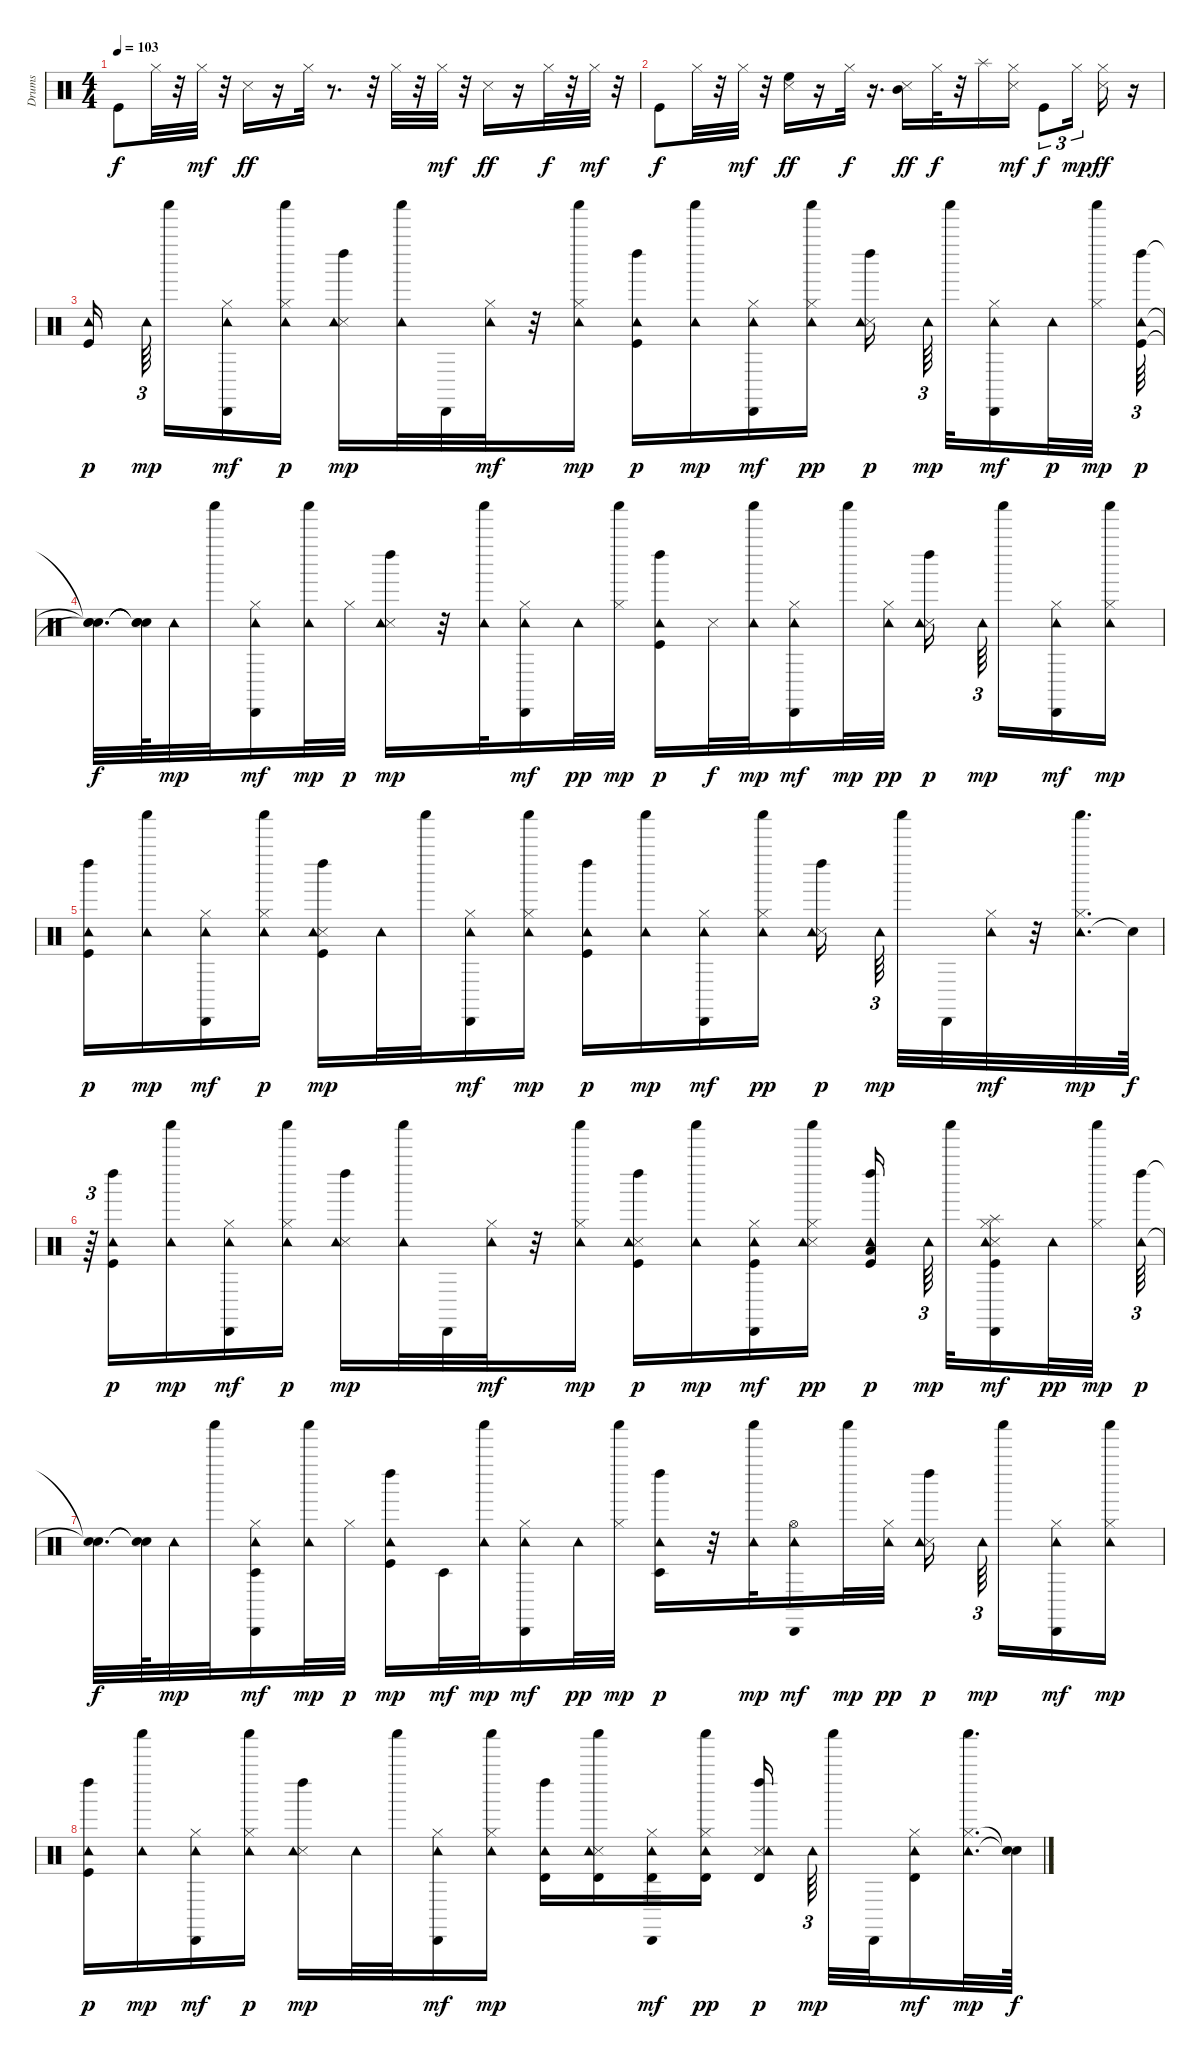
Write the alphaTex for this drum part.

\track ("Drums" "Drums") {instrument percussion}
\staff {score}
\articulation defaults
\ts (4 4)
\tempo 103
\clef neutral
\ks c "Kick (hit)".8{dy f} "Hi-Hat (closed)".32
r.32 "Hi-Hat (closed)".32{dy mf} r.32 "Snare (side stick) 3".16{dy ff} r.16 "Hi-Hat (closed)".32 r.8{d} r.32 "Hi-Hat (closed)".32 r.32 "Hi-Hat (closed)".32{dy mf} r.32 "Snare (side stick) 3".16{dy ff} r.16 "Hi-Hat (closed)".32{dy f} r.32 "Hi-Hat (closed)".32{dy mf} r.32 |
"Kick (hit)".8{dy f} "Hi-Hat (closed)".32 r.32 "Hi-Hat (closed)".32{dy mf} r.32 ("High Floor Tom (hit)" "Snare (side stick) 3").16{dy ff} r.16 "Hi-Hat (closed)".32{dy f} r.16{d} ("Mid Tom (hit)" "Snare (side stick) 3").16{dy ff} "Hi-Hat (closed)".32{dy f} r.32 "Splash (hit)".16 ("Snare (side stick) 3" "Hi-Hat (closed)").16{dy mf} "Kick (hit)".8{tu (3 2) dy f} "Hi-Hat (closed)".16{tu (3 2) dy mp} ("Snare (side stick) 3" "Hi-Hat (closed)").16{dy ff} r.16 |
("Kick (hit)" "Tambourine (hit)").16{dy p beam splitsecondary} "Tambourine (hit)".64{tu (3 2) dy mp beam splitsecondary} "Shaker (hit)".16 ("Cabasa (hit)" "Hi-Hat (closed)" "Tambourine (hit)").16{dy mf} ("Tambourine (hit)" "Shaker (hit)" "Hi-Hat (closed)").16{dy p} ("Left Maraca (hit)" "Snare (side stick) 3" "Tambourine (hit)").16{dy mp} ("Tambourine (hit)" "Shaker (hit)").32 "Cabasa (hit)".32 ("Hi-Hat (closed)" "Tambourine (hit)").32{dy mf} r.32 ("Tambourine (hit)" "Hi-Hat (closed)" "Shaker (hit)").16{dy mp} ("Left Maraca (hit)" "Kick (hit)" "Tambourine (hit)").16{dy p} ("Tambourine (hit)" "Shaker (hit)").16{dy mp} ("Cabasa (hit)" "Hi-Hat (closed)" "Tambourine (hit)").16{dy mf} ("Shaker (hit)" "Hi-Hat (closed)" "Tambourine (hit)").16{dy pp} ("Left Maraca (hit)" "Snare (side stick) 3" "Tambourine (hit)").16{dy p beam splitsecondary} "Tambourine (hit)".64{tu (3 2) dy mp beam splitsecondary} "Shaker (hit)".32 ("Cabasa (hit)" "Hi-Hat (closed)" "Tambourine (hit)").16{dy mf} "Tambourine (hit)".32{dy p} ("Hi-Hat (closed)" "Shaker (hit)").32{dy mp beam splitsecondary} ("Left Maraca (hit)" "Kick (hit)" "Tambourine (hit)").64{tu (3 2) dy p} |
("Snare (hit)"{t} "Snare (hit)"{t} "Snare (hit)"{t}).32{d dy f} ("Snare (hit)"{t} "Snare (hit)"{t} "Snare (hit)"{t}).64 "Tambourine (hit)".32{dy mp} "Shaker (hit)".32 ("Cabasa (hit)" "Hi-Hat (closed)" "Tambourine (hit)").16{dy mf} ("Tambourine (hit)" "Shaker (hit)").32{dy mp} "Hi-Hat (closed)".32{dy p} ("Left Maraca (hit)" "Snare (side stick) 3" "Tambourine (hit)").16{dy mp} r.32 ("Tambourine (hit)" "Shaker (hit)").32 ("Cabasa (hit)" "Hi-Hat (closed)" "Tambourine (hit)").16{dy mf} "Tambourine (hit)".32{dy pp} ("Hi-Hat (closed)" "Shaker (hit)").32{dy mp} ("Left Maraca (hit)" "Kick (hit)" "Tambourine (hit)").16{dy p} "Snare (side stick) 3".32{dy f} ("Tambourine (hit)" "Shaker (hit)").32{dy mp} ("Cabasa (hit)" "Hi-Hat (closed)" "Tambourine (hit)").16{dy mf} "Shaker (hit)".32{dy mp} ("Hi-Hat (closed)" "Tambourine (hit)").32{dy pp} ("Left Maraca (hit)" "Snare (side stick) 3" "Tambourine (hit)").16{dy p beam splitsecondary} "Tambourine (hit)".64{tu (3 2) dy mp beam splitsecondary} "Shaker (hit)".16 ("Cabasa (hit)" "Hi-Hat (closed)" "Tambourine (hit)").16{dy mf} ("Tambourine (hit)" "Hi-Hat (closed)" "Shaker (hit)").16{dy mp} |
("Left Maraca (hit)" "Kick (hit)" "Tambourine (hit)").16{dy p} ("Tambourine (hit)" "Shaker (hit)").16{dy mp} ("Cabasa (hit)" "Hi-Hat (closed)" "Tambourine (hit)").16{dy mf} ("Tambourine (hit)" "Shaker (hit)" "Hi-Hat (closed)").16{dy p} ("Left Maraca (hit)" "Kick (hit)" "Snare (side stick) 3" "Tambourine (hit)").16{dy mp} "Tambourine (hit)".32 "Shaker (hit)".32 ("Cabasa (hit)" "Hi-Hat (closed)" "Tambourine (hit)").16{dy mf} ("Tambourine (hit)" "Hi-Hat (closed)" "Shaker (hit)").16{dy mp} ("Left Maraca (hit)" "Kick (hit)" "Tambourine (hit)").16{dy p} ("Tambourine (hit)" "Shaker (hit)").16{dy mp} ("Cabasa (hit)" "Hi-Hat (closed)" "Tambourine (hit)").16{dy mf} ("Shaker (hit)" "Hi-Hat (closed)" "Tambourine (hit)").16{dy pp} ("Left Maraca (hit)" "Snare (side stick) 3" "Tambourine (hit)").16{dy p beam splitsecondary} "Tambourine (hit)".64{tu (3 2) dy mp beam splitsecondary} "Shaker (hit)".32 "Cabasa (hit)".32 ("Hi-Hat (closed)" "Tambourine (hit)").32{dy mf} r.32 ("Tambourine (hit)" "Hi-Hat (closed)" "Shaker (hit)").32{d dy mp} "Snare (hit)"{t}.64{dy f} |
r.64{tu (3 2)} ("Left Maraca (hit)" "Kick (hit)" "Tambourine (hit)").16{dy p} ("Tambourine (hit)" "Shaker (hit)").16{dy mp} ("Cabasa (hit)" "Hi-Hat (closed)" "Tambourine (hit)").16{dy mf} ("Tambourine (hit)" "Shaker (hit)" "Hi-Hat (closed)").16{dy p} ("Left Maraca (hit)" "Snare (side stick) 3" "Tambourine (hit)").16{dy mp} ("Tambourine (hit)" "Shaker (hit)").32 "Cabasa (hit)".32 ("Hi-Hat (closed)" "Tambourine (hit)").32{dy mf} r.32 ("Tambourine (hit)" "Hi-Hat (closed)" "Shaker (hit)").16{dy mp} ("Left Maraca (hit)" "Kick (hit)" "Snare (side stick) 3" "Tambourine (hit)").16{dy p} ("Tambourine (hit)" "Shaker (hit)").16{dy mp} ("Cabasa (hit)" "Kick (hit)" "Hi-Hat (closed)" "Tambourine (hit)").16{dy mf} ("Shaker (hit)" "Snare (side stick) 3" "Hi-Hat (closed)" "Tambourine (hit)").16{dy pp} ("Low Tom (hit)" "Left Maraca (hit)" "Kick (hit)" "Tambourine (hit)").16{dy p beam splitsecondary} "Tambourine (hit)".64{tu (3 2) dy mp beam splitsecondary} "Shaker (hit)".32 ("Cabasa (hit)" "Splash (hit)" "Kick (hit)" "Snare (side stick) 3" "Hi-Hat (closed)" "Tambourine (hit)").16{dy mf} "Tambourine (hit)".32{dy pp} ("Hi-Hat (closed)" "Shaker (hit)").32{dy mp beam splitsecondary} ("Left Maraca (hit)" "Tambourine (hit)").64{tu (3 2) dy p} |
("Snare (hit)"{t} "Snare (hit)"{t}).32{d dy f} ("Snare (hit)"{t} "Snare (hit)"{t}).64 "Tambourine (hit)".32{dy mp} "Shaker (hit)".32 ("Cabasa (hit)" "Hi-Hat (closed)" "Timbale low (hit)" "Tambourine (hit)").16{dy mf} ("Tambourine (hit)" "Shaker (hit)").32{dy mp} "Hi-Hat (closed)".32{dy p} ("Left Maraca (hit)" "Kick (hit)" "Tambourine (hit)").16{dy mp} "Timbale low (hit)".32{dy mf} ("Tambourine (hit)" "Shaker (hit)").32{dy mp} ("Cabasa (hit)" "Hi-Hat (closed)" "Tambourine (hit)").16{dy mf} "Tambourine (hit)".32{dy pp} ("Hi-Hat (closed)" "Shaker (hit)").32{dy mp} ("Left Maraca (hit)" "Timbale low (hit)" "Tambourine (hit)").16{dy p} r.32 ("Tambourine (hit)" "Shaker (hit)").32{dy mp} ("Cabasa (hit)" "Hi-Hat (open)" "Tambourine (hit)").16{dy mf} "Shaker (hit)".32{dy mp} ("Hi-Hat (closed)" "Tambourine (hit)").32{dy pp} ("Left Maraca (hit)" "Snare (side stick) 3" "Tambourine (hit)").16{dy p beam splitsecondary} "Tambourine (hit)".64{tu (3 2) dy mp beam splitsecondary} "Shaker (hit)".16 ("Cabasa (hit)" "Hi-Hat (closed)" "Tambourine (hit)").16{dy mf} ("Tambourine (hit)" "Hi-Hat (closed)" "Shaker (hit)").16{dy mp} |
("Left Maraca (hit)" "Kick (hit)" "Tambourine (hit)").16{dy p} ("Tambourine (hit)" "Shaker (hit)").16{dy mp} ("Cabasa (hit)" "Hi-Hat (closed)" "Tambourine (hit)").16{dy mf} ("Tambourine (hit)" "Shaker (hit)" "Hi-Hat (closed)").16{dy p} ("Left Maraca (hit)" "Snare (side stick) 3" "Tambourine (hit)").16{dy mp} "Tambourine (hit)".32 "Shaker (hit)".32 ("Cabasa (hit)" "Hi-Hat (closed)" "Tambourine (hit)").16{dy mf} ("Tambourine (hit)" "Hi-Hat (closed)" "Shaker (hit)").16{dy mp} ("Left Maraca (hit)" "Tambourine (hit)" "Timbale high (hit)").16 ("Timbale high (hit)" "Snare (side stick) 3" "Tambourine (hit)" "Shaker (hit)").16 ("Cabasa (hit)" "Timbale high (hit)" "Hi-Hat (closed)" "Tambourine (hit)").16{dy mf} ("Timbale high (hit)" "Shaker (hit)" "Hi-Hat (closed)" "Tambourine (hit)").16{dy pp} ("Timbale high (hit)" "Left Maraca (hit)" "Snare (side stick) 3" "Tambourine (hit)").16{dy p beam splitsecondary} "Tambourine (hit)".64{tu (3 2) dy mp beam splitsecondary} "Shaker (hit)".32 "Cabasa (hit)".32 ("Timbale high (hit)" "Hi-Hat (closed)" "Tambourine (hit)").16{dy mf} ("Tambourine (hit)" "Hi-Hat (closed)" "Shaker (hit)").32{d dy mp} ("Snare (hit)"{t} "Snare (hit)"{t}).64{dy f}
